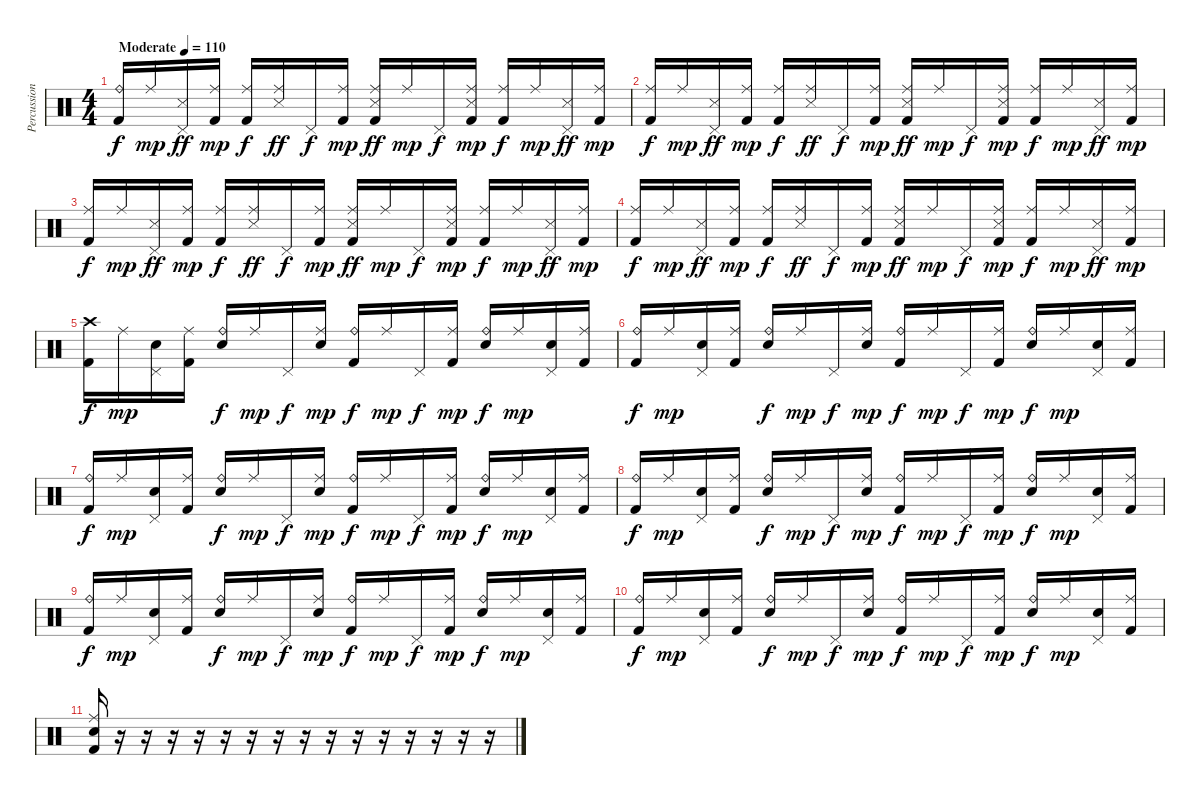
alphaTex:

\track ("Percussion" "Percussion") {instrument percussion}
\staff {score}
\articulation defaults
\ts (4 4)
\tempo (110 "Moderate")
\clef neutral
\ks c
("Ride (bell)" "Kick (hit) 2").16{dy f} "Ride (middle)".16{dy mp} ("Snare (side stick) 3" "Pedal Hi-Hat (hit)").16{dy ff} ("Ride (middle)" "Kick (hit) 2").16{dy mp} ("Ride (middle)" "Kick (hit) 2").16{dy f} ("Ride (middle)" "Snare (side stick) 3").16{dy ff} "Pedal Hi-Hat (hit)".16{dy f} ("Ride (middle)" "Kick (hit) 2").16{dy mp} ("Ride (middle)" "Snare (side stick) 3" "Kick (hit) 2").16{dy ff} "Ride (middle)".16{dy mp} "Pedal Hi-Hat (hit)".16{dy f} ("Ride (middle)" "Snare (side stick) 3" "Kick (hit) 2").16{dy mp} ("Ride (middle)" "Kick (hit) 2").16{dy f} "Ride (middle)".16{dy mp} ("Snare (side stick) 3" "Pedal Hi-Hat (hit)").16{dy ff} ("Ride (middle)" "Kick (hit) 2").16{dy mp} |
("Ride (middle)" "Kick (hit) 2").16{dy f} "Ride (middle)".16{dy mp} ("Snare (side stick) 3" "Pedal Hi-Hat (hit)").16{dy ff} ("Ride (middle)" "Kick (hit) 2").16{dy mp} ("Ride (middle)" "Kick (hit) 2").16{dy f} ("Ride (middle)" "Snare (side stick) 3").16{dy ff} "Pedal Hi-Hat (hit)".16{dy f} ("Ride (middle)" "Kick (hit) 2").16{dy mp} ("Ride (middle)" "Snare (side stick) 3" "Kick (hit) 2").16{dy ff} "Ride (middle)".16{dy mp} "Pedal Hi-Hat (hit)".16{dy f} ("Ride (middle)" "Snare (side stick) 3" "Kick (hit) 2").16{dy mp} ("Ride (middle)" "Kick (hit) 2").16{dy f} "Ride (middle)".16{dy mp} ("Snare (side stick) 3" "Pedal Hi-Hat (hit)").16{dy ff} ("Ride (middle)" "Kick (hit) 2").16{dy mp} |
("Ride (middle)" "Kick (hit) 2").16{dy f} "Ride (middle)".16{dy mp} ("Snare (side stick) 3" "Pedal Hi-Hat (hit)").16{dy ff} ("Ride (middle)" "Kick (hit) 2").16{dy mp} ("Ride (middle)" "Kick (hit) 2").16{dy f} ("Ride (middle)" "Snare (side stick) 3").16{dy ff} "Pedal Hi-Hat (hit)".16{dy f} ("Ride (middle)" "Kick (hit) 2").16{dy mp} ("Ride (middle)" "Snare (side stick) 3" "Kick (hit) 2").16{dy ff} "Ride (middle)".16{dy mp} "Pedal Hi-Hat (hit)".16{dy f} ("Ride (middle)" "Snare (side stick) 3" "Kick (hit) 2").16{dy mp} ("Ride (middle)" "Kick (hit) 2").16{dy f} "Ride (middle)".16{dy mp} ("Snare (side stick) 3" "Pedal Hi-Hat (hit)").16{dy ff} ("Ride (middle)" "Kick (hit) 2").16{dy mp} |
("Ride (middle)" "Kick (hit) 2").16{dy f} "Ride (middle)".16{dy mp} ("Snare (side stick) 3" "Pedal Hi-Hat (hit)").16{dy ff} ("Ride (middle)" "Kick (hit) 2").16{dy mp} ("Ride (middle)" "Kick (hit) 2").16{dy f} ("Ride (middle)" "Snare (side stick) 3").16{dy ff} "Pedal Hi-Hat (hit)".16{dy f} ("Ride (middle)" "Kick (hit) 2").16{dy mp} ("Ride (middle)" "Snare (side stick) 3" "Kick (hit) 2").16{dy ff} "Ride (middle)".16{dy mp} "Pedal Hi-Hat (hit)".16{dy f} ("Ride (middle)" "Snare (side stick) 3" "Kick (hit) 2").16{dy mp} ("Ride (middle)" "Kick (hit) 2").16{dy f} "Ride (middle)".16{dy mp} ("Snare (side stick) 3" "Pedal Hi-Hat (hit)").16{dy ff} ("Ride (middle)" "Kick (hit) 2").16{dy mp} |
("Crash high (hit)" "Kick (hit) 2").16{dy f} "Ride (middle)".16{dy mp} ("Electric Snare (hit)" "Pedal Hi-Hat (hit)").16 ("Ride (middle)" "Kick (hit) 2").16 ("Ride (bell)" "Electric Snare (hit)").16{dy f} "Ride (middle)".16{dy mp} "Pedal Hi-Hat (hit)".16{dy f} ("Ride (middle)" "Electric Snare (hit)").16{dy mp} ("Ride (bell)" "Kick (hit) 2").16{dy f} "Ride (middle)".16{dy mp} "Pedal Hi-Hat (hit)".16{dy f} ("Ride (middle)" "Kick (hit) 2").16{dy mp} ("Ride (bell)" "Electric Snare (hit)").16{dy f} "Ride (middle)".16{dy mp} ("Electric Snare (hit)" "Pedal Hi-Hat (hit)").16 ("Ride (middle)" "Kick (hit) 2").16 |
("Ride (bell)" "Kick (hit) 2").16{dy f} "Ride (middle)".16{dy mp} ("Electric Snare (hit)" "Pedal Hi-Hat (hit)").16 ("Ride (middle)" "Kick (hit) 2").16 ("Ride (bell)" "Electric Snare (hit)").16{dy f} "Ride (middle)".16{dy mp} "Pedal Hi-Hat (hit)".16{dy f} ("Ride (middle)" "Electric Snare (hit)").16{dy mp} ("Ride (bell)" "Kick (hit) 2").16{dy f} "Ride (middle)".16{dy mp} "Pedal Hi-Hat (hit)".16{dy f} ("Ride (middle)" "Kick (hit) 2").16{dy mp} ("Ride (bell)" "Electric Snare (hit)").16{dy f} "Ride (middle)".16{dy mp} ("Electric Snare (hit)" "Pedal Hi-Hat (hit)").16 ("Ride (middle)" "Kick (hit) 2").16 |
("Ride (bell)" "Kick (hit) 2").16{dy f} "Ride (middle)".16{dy mp} ("Electric Snare (hit)" "Pedal Hi-Hat (hit)").16 ("Ride (middle)" "Kick (hit) 2").16 ("Ride (bell)" "Electric Snare (hit)").16{dy f} "Ride (middle)".16{dy mp} "Pedal Hi-Hat (hit)".16{dy f} ("Ride (middle)" "Electric Snare (hit)").16{dy mp} ("Ride (bell)" "Kick (hit) 2").16{dy f} "Ride (middle)".16{dy mp} "Pedal Hi-Hat (hit)".16{dy f} ("Ride (middle)" "Kick (hit) 2").16{dy mp} ("Ride (bell)" "Electric Snare (hit)").16{dy f} "Ride (middle)".16{dy mp} ("Electric Snare (hit)" "Pedal Hi-Hat (hit)").16 ("Ride (middle)" "Kick (hit) 2").16 |
("Ride (bell)" "Kick (hit) 2").16{dy f} "Ride (middle)".16{dy mp} ("Electric Snare (hit)" "Pedal Hi-Hat (hit)").16 ("Ride (middle)" "Kick (hit) 2").16 ("Ride (bell)" "Electric Snare (hit)").16{dy f} "Ride (middle)".16{dy mp} "Pedal Hi-Hat (hit)".16{dy f} ("Ride (middle)" "Electric Snare (hit)").16{dy mp} ("Ride (bell)" "Kick (hit) 2").16{dy f} "Ride (middle)".16{dy mp} "Pedal Hi-Hat (hit)".16{dy f} ("Ride (middle)" "Kick (hit) 2").16{dy mp} ("Ride (bell)" "Electric Snare (hit)").16{dy f} "Ride (middle)".16{dy mp} ("Electric Snare (hit)" "Pedal Hi-Hat (hit)").16 ("Ride (middle)" "Kick (hit) 2").16 |
("Ride (bell)" "Kick (hit) 2").16{dy f} "Ride (middle)".16{dy mp} ("Electric Snare (hit)" "Pedal Hi-Hat (hit)").16 ("Ride (middle)" "Kick (hit) 2").16 ("Ride (bell)" "Electric Snare (hit)").16{dy f} "Ride (middle)".16{dy mp} "Pedal Hi-Hat (hit)".16{dy f} ("Ride (middle)" "Electric Snare (hit)").16{dy mp} ("Ride (bell)" "Kick (hit) 2").16{dy f} "Ride (middle)".16{dy mp} "Pedal Hi-Hat (hit)".16{dy f} ("Ride (middle)" "Kick (hit) 2").16{dy mp} ("Ride (bell)" "Electric Snare (hit)").16{dy f} "Ride (middle)".16{dy mp} ("Electric Snare (hit)" "Pedal Hi-Hat (hit)").16 ("Ride (middle)" "Kick (hit) 2").16 |
("Ride (bell)" "Kick (hit) 2").16{dy f} "Ride (middle)".16{dy mp} ("Electric Snare (hit)" "Pedal Hi-Hat (hit)").16 ("Ride (middle)" "Kick (hit) 2").16 ("Ride (bell)" "Electric Snare (hit)").16{dy f} "Ride (middle)".16{dy mp} "Pedal Hi-Hat (hit)".16{dy f} ("Ride (middle)" "Electric Snare (hit)").16{dy mp} ("Ride (bell)" "Kick (hit) 2").16{dy f} "Ride (middle)".16{dy mp} "Pedal Hi-Hat (hit)".16{dy f} ("Ride (middle)" "Kick (hit) 2").16{dy mp} ("Ride (bell)" "Electric Snare (hit)").16{dy f} "Ride (middle)".16{dy mp} ("Electric Snare (hit)" "Pedal Hi-Hat (hit)").16 ("Ride (middle)" "Kick (hit) 2").16 |
("Ride (middle)" "Electric Snare (hit)" "Kick (hit) 2").16 r.16 r.16 r.16 r.16 r.16 r.16 r.16 r.16 r.16 r.16 r.16 r.16 r.16 r.16 r.16
